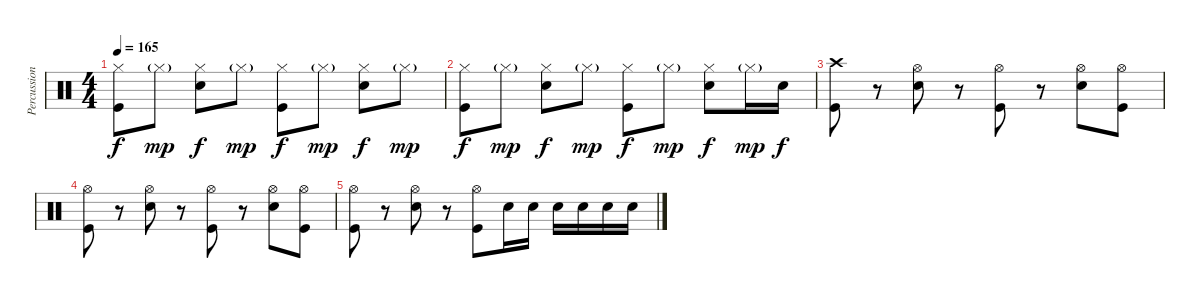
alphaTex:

\track ("Percussion" "Percussion") {instrument percussion}
\staff {score}
\articulation defaults
\ts (4 4)
\tempo 165
\clef neutral
\ks c
("Hi-Hat (closed)" "Kick (hit)").8{dy f} "Hi-Hat (closed)"{g}.8{dy mp} ("Hi-Hat (closed)" "Snare (hit) 2").8{dy f} "Hi-Hat (closed)"{g}.8{dy mp} ("Hi-Hat (closed)" "Kick (hit)").8{dy f} "Hi-Hat (closed)"{g}.8{dy mp} ("Hi-Hat (closed)" "Snare (hit) 2").8{dy f} "Hi-Hat (closed)"{g}.8{dy mp} |
("Hi-Hat (closed)" "Kick (hit)").8{dy f} "Hi-Hat (closed)"{g}.8{dy mp} ("Hi-Hat (closed)" "Snare (hit) 2").8{dy f} "Hi-Hat (closed)"{g}.8{dy mp} ("Hi-Hat (closed)" "Kick (hit)").8{dy f} "Hi-Hat (closed)"{g}.8{dy mp} ("Hi-Hat (closed)" "Snare (hit) 2").8{dy f} "Hi-Hat (closed)"{g}.16{dy mp} "Snare (hit) 2".16{dy f} |
("Crash high (hit)" "Kick (hit)").8 r.8 ("Hi-Hat (open)" "Snare (hit) 2").8 r.8 ("Hi-Hat (open)" "Kick (hit)").8 r.8 ("Hi-Hat (open)" "Snare (hit) 2").8 ("Hi-Hat (open)" "Kick (hit)").8 |
("Hi-Hat (open)" "Kick (hit)").8 r.8 ("Hi-Hat (open)" "Snare (hit) 2").8 r.8 ("Hi-Hat (open)" "Kick (hit)").8 r.8 ("Hi-Hat (open)" "Snare (hit) 2").8 ("Hi-Hat (open)" "Kick (hit)").8 |
("Hi-Hat (open)" "Kick (hit)").8 r.8 ("Hi-Hat (open)" "Snare (hit) 2").8 r.8 ("Hi-Hat (open)" "Kick (hit)").8 "Snare (hit) 2".16 "Snare (hit) 2".16 "Snare (hit) 2".16 "Snare (hit) 2".16 "Snare (hit) 2".16 "Snare (hit) 2".16
